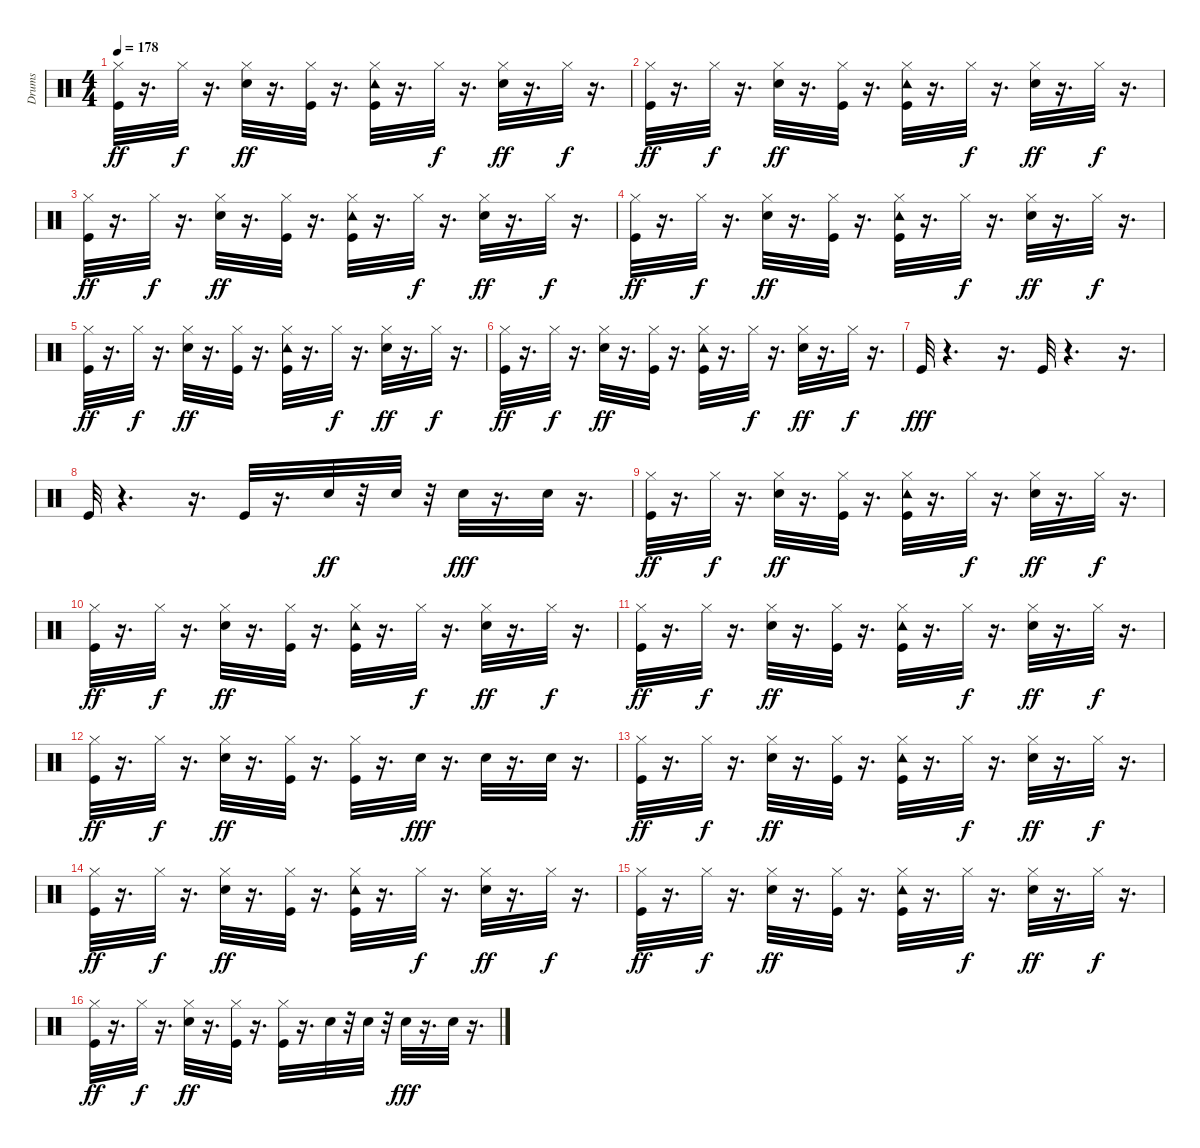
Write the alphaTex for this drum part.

\track ("Drums" "Drums") {instrument percussion}
\staff {score}
\articulation defaults
\ts (4 4)
\tempo 178
\clef neutral
\ks c
("Kick (hit)" "Hi-Hat (closed)").32{dy ff} r.16{d} "Hi-Hat (closed)".32{dy f} r.16{d} ("Snare (hit) 2" "Hi-Hat (closed)").32{dy ff} r.16{d} ("Hi-Hat (closed)" "Kick (hit)").32 r.16{d} ("Kick (hit)" "Tambourine (hit)" "Hi-Hat (closed)").32 r.16{d} "Hi-Hat (closed)".32{dy f} r.16{d} ("Snare (hit) 2" "Hi-Hat (closed)").32{dy ff} r.16{d} "Hi-Hat (closed)".32{dy f} r.16{d} |
("Kick (hit)" "Hi-Hat (closed)").32{dy ff} r.16{d} "Hi-Hat (closed)".32{dy f} r.16{d} ("Snare (hit) 2" "Hi-Hat (closed)").32{dy ff} r.16{d} ("Hi-Hat (closed)" "Kick (hit)").32 r.16{d} ("Kick (hit)" "Tambourine (hit)" "Hi-Hat (closed)").32 r.16{d} "Hi-Hat (closed)".32{dy f} r.16{d} ("Snare (hit) 2" "Hi-Hat (closed)").32{dy ff} r.16{d} "Hi-Hat (closed)".32{dy f} r.16{d} |
("Kick (hit)" "Hi-Hat (closed)").32{dy ff} r.16{d} "Hi-Hat (closed)".32{dy f} r.16{d} ("Snare (hit) 2" "Hi-Hat (closed)").32{dy ff} r.16{d} ("Hi-Hat (closed)" "Kick (hit)").32 r.16{d} ("Kick (hit)" "Tambourine (hit)" "Hi-Hat (closed)").32 r.16{d} "Hi-Hat (closed)".32{dy f} r.16{d} ("Snare (hit) 2" "Hi-Hat (closed)").32{dy ff} r.16{d} "Hi-Hat (closed)".32{dy f} r.16{d} |
("Kick (hit)" "Hi-Hat (closed)").32{dy ff} r.16{d} "Hi-Hat (closed)".32{dy f} r.16{d} ("Snare (hit) 2" "Hi-Hat (closed)").32{dy ff} r.16{d} ("Hi-Hat (closed)" "Kick (hit)").32 r.16{d} ("Kick (hit)" "Tambourine (hit)" "Hi-Hat (closed)").32 r.16{d} "Hi-Hat (closed)".32{dy f} r.16{d} ("Snare (hit) 2" "Hi-Hat (closed)").32{dy ff} r.16{d} "Hi-Hat (closed)".32{dy f} r.16{d} |
("Kick (hit)" "Hi-Hat (closed)").32{dy ff} r.16{d} "Hi-Hat (closed)".32{dy f} r.16{d} ("Snare (hit) 2" "Hi-Hat (closed)").32{dy ff} r.16{d} ("Hi-Hat (closed)" "Kick (hit)").32 r.16{d} ("Kick (hit)" "Tambourine (hit)" "Hi-Hat (closed)").32 r.16{d} "Hi-Hat (closed)".32{dy f} r.16{d} ("Snare (hit) 2" "Hi-Hat (closed)").32{dy ff} r.16{d} "Hi-Hat (closed)".32{dy f} r.16{d} |
("Kick (hit)" "Hi-Hat (closed)").32{dy ff} r.16{d} "Hi-Hat (closed)".32{dy f} r.16{d} ("Snare (hit) 2" "Hi-Hat (closed)").32{dy ff} r.16{d} ("Hi-Hat (closed)" "Kick (hit)").32 r.16{d} ("Kick (hit)" "Tambourine (hit)" "Hi-Hat (closed)").32 r.16{d} "Hi-Hat (closed)".32{dy f} r.16{d} ("Snare (hit) 2" "Hi-Hat (closed)").32{dy ff} r.16{d} "Hi-Hat (closed)".32{dy f} r.16{d} |
"Kick (hit)".32{dy fff} r.4{d} r.16{d} "Kick (hit)".32 r.4{d} r.16{d} |
"Kick (hit)".32 r.4{d} r.16{d} "Kick (hit)".32 r.16{d} "Snare (hit) 2".32{dy ff} r.32 "Snare (hit) 2".32 r.32 "Snare (hit) 2".32{dy fff} r.16{d} "Snare (hit) 2".32 r.16{d} |
("Kick (hit)" "Hi-Hat (closed)").32{dy ff} r.16{d} "Hi-Hat (closed)".32{dy f} r.16{d} ("Snare (hit) 2" "Hi-Hat (closed)").32{dy ff} r.16{d} ("Hi-Hat (closed)" "Kick (hit)").32 r.16{d} ("Kick (hit)" "Tambourine (hit)" "Hi-Hat (closed)").32 r.16{d} "Hi-Hat (closed)".32{dy f} r.16{d} ("Snare (hit) 2" "Hi-Hat (closed)").32{dy ff} r.16{d} "Hi-Hat (closed)".32{dy f} r.16{d} |
("Kick (hit)" "Hi-Hat (closed)").32{dy ff} r.16{d} "Hi-Hat (closed)".32{dy f} r.16{d} ("Snare (hit) 2" "Hi-Hat (closed)").32{dy ff} r.16{d} ("Hi-Hat (closed)" "Kick (hit)").32 r.16{d} ("Kick (hit)" "Tambourine (hit)" "Hi-Hat (closed)").32 r.16{d} "Hi-Hat (closed)".32{dy f} r.16{d} ("Snare (hit) 2" "Hi-Hat (closed)").32{dy ff} r.16{d} "Hi-Hat (closed)".32{dy f} r.16{d} |
("Kick (hit)" "Hi-Hat (closed)").32{dy ff} r.16{d} "Hi-Hat (closed)".32{dy f} r.16{d} ("Snare (hit) 2" "Hi-Hat (closed)").32{dy ff} r.16{d} ("Hi-Hat (closed)" "Kick (hit)").32 r.16{d} ("Kick (hit)" "Tambourine (hit)" "Hi-Hat (closed)").32 r.16{d} "Hi-Hat (closed)".32{dy f} r.16{d} ("Snare (hit) 2" "Hi-Hat (closed)").32{dy ff} r.16{d} "Hi-Hat (closed)".32{dy f} r.16{d} |
("Kick (hit)" "Hi-Hat (closed)").32{dy ff} r.16{d} "Hi-Hat (closed)".32{dy f} r.16{d} ("Snare (hit) 2" "Hi-Hat (closed)").32{dy ff} r.16{d} ("Hi-Hat (closed)" "Kick (hit)").32 r.16{d} ("Kick (hit)" "Hi-Hat (closed)").32 r.16{d} "Snare (hit) 2".32{dy fff} r.16{d} "Snare (hit) 2".32 r.16{d} "Snare (hit) 2".32 r.16{d} |
("Kick (hit)" "Hi-Hat (closed)").32{dy ff} r.16{d} "Hi-Hat (closed)".32{dy f} r.16{d} ("Snare (hit) 2" "Hi-Hat (closed)").32{dy ff} r.16{d} ("Hi-Hat (closed)" "Kick (hit)").32 r.16{d} ("Kick (hit)" "Tambourine (hit)" "Hi-Hat (closed)").32 r.16{d} "Hi-Hat (closed)".32{dy f} r.16{d} ("Snare (hit) 2" "Hi-Hat (closed)").32{dy ff} r.16{d} "Hi-Hat (closed)".32{dy f} r.16{d} |
("Kick (hit)" "Hi-Hat (closed)").32{dy ff} r.16{d} "Hi-Hat (closed)".32{dy f} r.16{d} ("Snare (hit) 2" "Hi-Hat (closed)").32{dy ff} r.16{d} ("Hi-Hat (closed)" "Kick (hit)").32 r.16{d} ("Kick (hit)" "Tambourine (hit)" "Hi-Hat (closed)").32 r.16{d} "Hi-Hat (closed)".32{dy f} r.16{d} ("Snare (hit) 2" "Hi-Hat (closed)").32{dy ff} r.16{d} "Hi-Hat (closed)".32{dy f} r.16{d} |
("Kick (hit)" "Hi-Hat (closed)").32{dy ff} r.16{d} "Hi-Hat (closed)".32{dy f} r.16{d} ("Snare (hit) 2" "Hi-Hat (closed)").32{dy ff} r.16{d} ("Hi-Hat (closed)" "Kick (hit)").32 r.16{d} ("Kick (hit)" "Tambourine (hit)" "Hi-Hat (closed)").32 r.16{d} "Hi-Hat (closed)".32{dy f} r.16{d} ("Snare (hit) 2" "Hi-Hat (closed)").32{dy ff} r.16{d} "Hi-Hat (closed)".32{dy f} r.16{d} |
("Kick (hit)" "Hi-Hat (closed)").32{dy ff} r.16{d} "Hi-Hat (closed)".32{dy f} r.16{d} ("Snare (hit) 2" "Hi-Hat (closed)").32{dy ff} r.16{d} ("Hi-Hat (closed)" "Kick (hit)").32 r.16{d} ("Kick (hit)" "Hi-Hat (closed)").32 r.16{d} "Snare (hit) 2".32 r.32 "Snare (hit) 2".32 r.32 "Snare (hit) 2".32{dy fff} r.16{d} "Snare (hit) 2".32 r.16{d}
